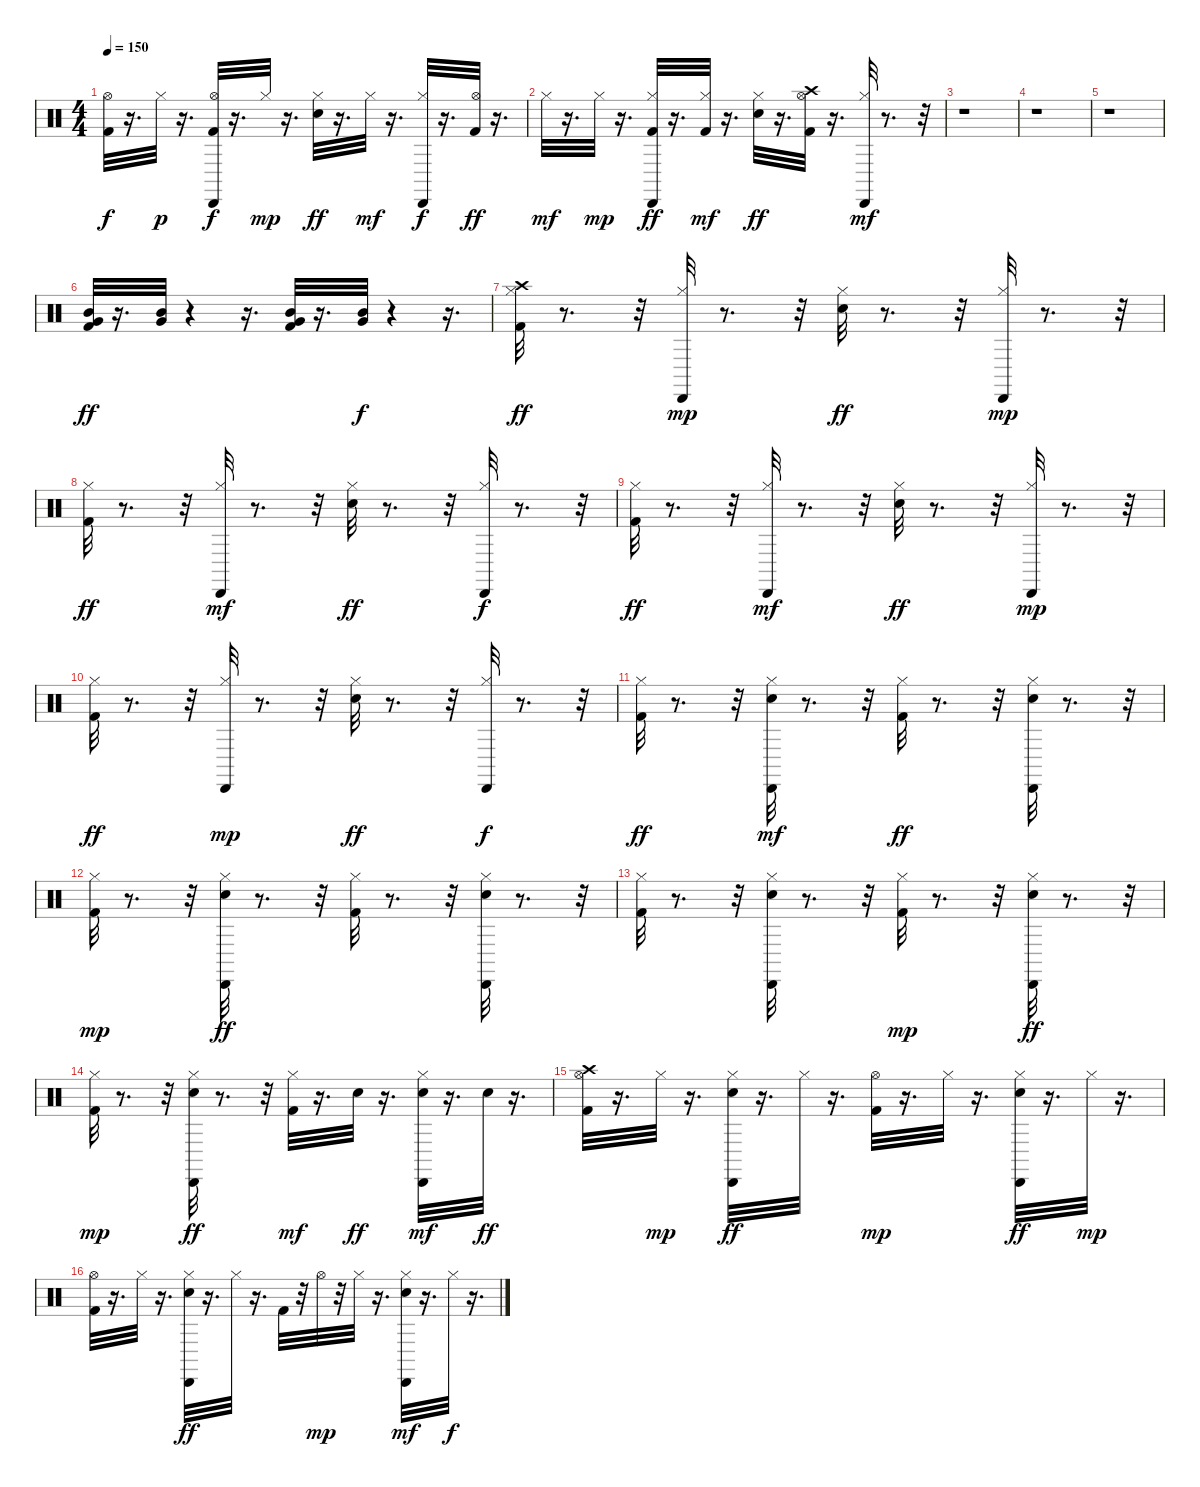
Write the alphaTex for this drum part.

\track "" {instrument percussion}
\staff {score}
\articulation defaults
\ts (4 4)
\tempo 150
\clef neutral
\ks c
("Kick (hit) 2" "Hi-Hat (open)").32{dy f} r.16{d} "Hi-Hat (closed)".32{dy p} r.16{d} ("Kick (hit) 2" "Hi-Hat (open)" "Cabasa (hit)").32{dy f} r.16{d} "Hi-Hat (closed)".32{dy mp} r.16{d} ("Hi-Hat (closed)" "Snare (hit) 2").32{dy ff} r.16{d} "Hi-Hat (closed)".32{dy mf} r.16{d} ("Hi-Hat (closed)" "Cabasa (hit)").32{dy f} r.16{d} ("Hi-Hat (open)" "Kick (hit) 2").32{dy ff} r.16{d} |
"Hi-Hat (closed)".32{dy mf} r.16{d} "Hi-Hat (closed)".32{dy mp} r.16{d} ("Kick (hit) 2" "Hi-Hat (closed)" "Cabasa (hit)").32{dy ff} r.16{d} ("Hi-Hat (closed)" "Kick (hit) 2").32{dy mf} r.16{d} ("Hi-Hat (closed)" "Snare (hit) 2").32{dy ff} r.16{d} ("Crash high (hit)" "Hi-Hat (open)" "Kick (hit) 2").32 r.16{d} ("Hi-Hat (closed)" "Cabasa (hit)").32{dy mf} r.8{d} r.32 |
r.1 |
r.1 |
r.1 |
("Kick (hit) 2" "Mid Tom (hit)" "Very Low Tom (hit)").32{dy ff} r.16{d} ("Very Low Tom (hit)" "Mid Tom (hit)").32 r.4 r.16{d} ("Kick (hit) 2" "Very Low Tom (hit)" "Mid Tom (hit)").32 r.16{d} ("Very Low Tom (hit)" "Mid Tom (hit)").32{dy f} r.4 r.16{d} |
("Kick (hit) 2" "Hi-Hat (closed)" "Crash high (hit)").32{dy ff} r.8{d} r.32 ("Hi-Hat (closed)" "Cabasa (hit)").32{dy mp} r.8{d} r.32 ("Hi-Hat (closed)" "Snare (hit) 2").32{dy ff} r.8{d} r.32 ("Hi-Hat (closed)" "Cabasa (hit)").32{dy mp} r.8{d} r.32 |
("Kick (hit) 2" "Hi-Hat (closed)").32{dy ff} r.8{d} r.32 ("Hi-Hat (closed)" "Cabasa (hit)").32{dy mf} r.8{d} r.32 ("Hi-Hat (closed)" "Snare (hit) 2").32{dy ff} r.8{d} r.32 ("Hi-Hat (closed)" "Cabasa (hit)").32{dy f} r.8{d} r.32 |
("Kick (hit) 2" "Hi-Hat (closed)").32{dy ff} r.8{d} r.32 ("Hi-Hat (closed)" "Cabasa (hit)").32{dy mf} r.8{d} r.32 ("Hi-Hat (closed)" "Snare (hit) 2").32{dy ff} r.8{d} r.32 ("Hi-Hat (closed)" "Cabasa (hit)").32{dy mp} r.8{d} r.32 |
("Kick (hit) 2" "Hi-Hat (closed)").32{dy ff} r.8{d} r.32 ("Hi-Hat (closed)" "Cabasa (hit)").32{dy mp} r.8{d} r.32 ("Hi-Hat (closed)" "Snare (hit) 2").32{dy ff} r.8{d} r.32 ("Hi-Hat (closed)" "Cabasa (hit)").32{dy f} r.8{d} r.32 |
("Kick (hit) 2" "Hi-Hat (closed)").32{dy ff} r.8{d} r.32 ("Hi-Hat (closed)" "Snare (hit) 2" "Cabasa (hit)").32{dy mf} r.8{d} r.32 ("Kick (hit) 2" "Hi-Hat (closed)").32{dy ff} r.8{d} r.32 ("Hi-Hat (closed)" "Snare (hit) 2" "Cabasa (hit)").32 r.8{d} r.32 |
("Kick (hit) 2" "Hi-Hat (closed)").32{dy mp} r.8{d} r.32 ("Hi-Hat (closed)" "Snare (hit) 2" "Cabasa (hit)").32{dy ff} r.8{d} r.32 ("Kick (hit) 2" "Hi-Hat (closed)").32 r.8{d} r.32 ("Hi-Hat (closed)" "Snare (hit) 2" "Cabasa (hit)").32 r.8{d} r.32 |
("Kick (hit) 2" "Hi-Hat (closed)").32 r.8{d} r.32 ("Hi-Hat (closed)" "Snare (hit) 2" "Cabasa (hit)").32 r.8{d} r.32 ("Kick (hit) 2" "Hi-Hat (closed)").32{dy mp} r.8{d} r.32 ("Hi-Hat (closed)" "Snare (hit) 2" "Cabasa (hit)").32{dy ff} r.8{d} r.32 |
("Kick (hit) 2" "Hi-Hat (closed)").32{dy mp} r.8{d} r.32 ("Hi-Hat (closed)" "Snare (hit) 2" "Cabasa (hit)").32{dy ff} r.8{d} r.32 ("Kick (hit) 2" "Hi-Hat (closed)").32{dy mf} r.16{d} "Snare (hit) 2".32{dy ff} r.16{d} ("Hi-Hat (closed)" "Snare (hit) 2" "Cabasa (hit)").32{dy mf} r.16{d} "Snare (hit) 2".32{dy ff} r.16{d} |
("Kick (hit) 2" "Hi-Hat (open)" "Crash high (hit)").32 r.16{d} "Hi-Hat (closed)".32{dy mp} r.16{d} ("Hi-Hat (closed)" "Snare (hit) 2" "Cabasa (hit)").32{dy ff} r.16{d} "Hi-Hat (closed)".32 r.16{d} ("Kick (hit) 2" "Hi-Hat (open)").32{dy mp} r.16{d} "Hi-Hat (closed)".32 r.16{d} ("Hi-Hat (closed)" "Snare (hit) 2" "Cabasa (hit)").32{dy ff} r.16{d} "Hi-Hat (closed)".32{dy mp} r.16{d} |
("Kick (hit) 2" "Hi-Hat (open)").32 r.16{d} "Hi-Hat (closed)".32 r.16{d} ("Hi-Hat (closed)" "Snare (hit) 2" "Cabasa (hit)").32{dy ff} r.16{d} "Hi-Hat (closed)".32 r.16{d} "Kick (hit) 2".32 r.32 "Hi-Hat (open)".32{dy mp} r.32 "Hi-Hat (closed)".32 r.16{d} ("Hi-Hat (closed)" "Snare (hit) 2" "Cabasa (hit)").32{dy mf} r.16{d} "Hi-Hat (closed)".32{dy f} r.16{d}
